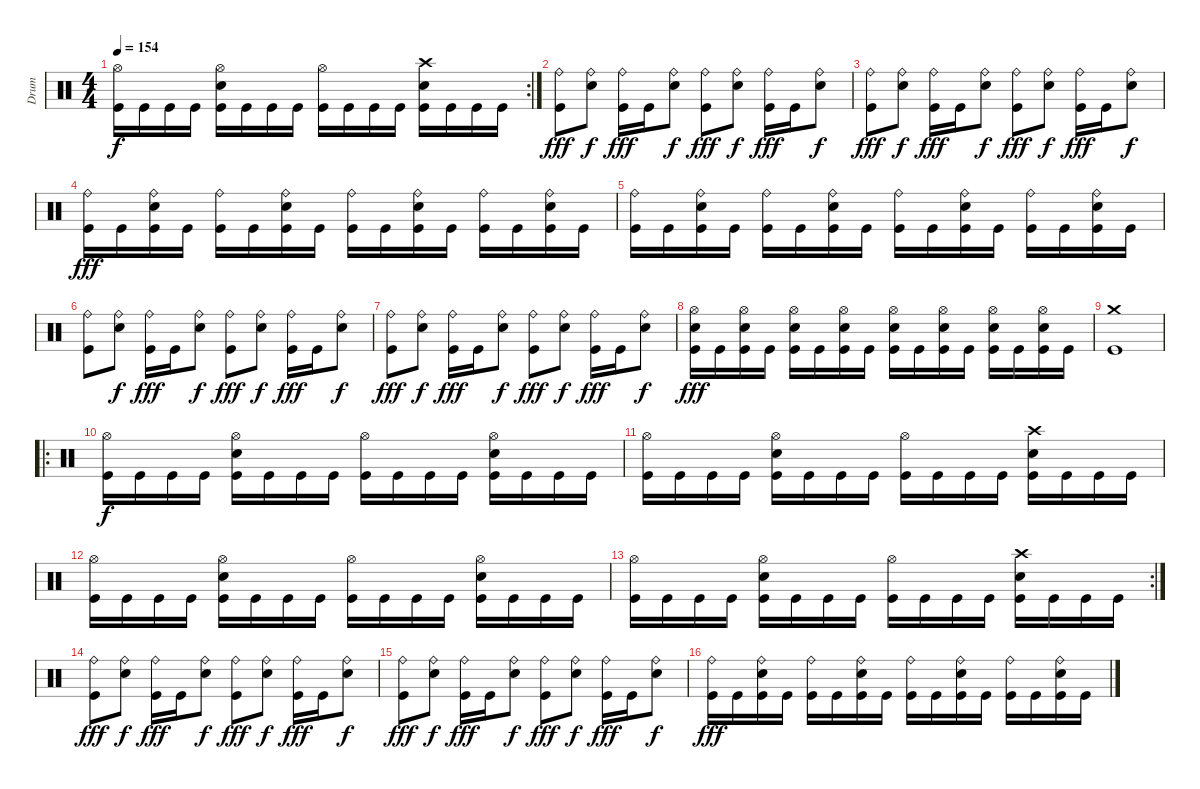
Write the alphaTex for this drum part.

\track ("Drum" "Drum") {instrument percussion}
\staff {score}
\articulation defaults
\rc 2
\ts (4 4)
\tempo 154
\clef neutral
\ks c
("Hi-Hat (open)" "Kick (hit)").16{dy f} "Kick (hit)".16 "Kick (hit)".16 "Kick (hit)".16 ("Hi-Hat (open)" "Snare (hit) 2" "Kick (hit)").16 "Kick (hit)".16 "Kick (hit)".16 "Kick (hit)".16 ("Hi-Hat (open)" "Kick (hit)").16 "Kick (hit)".16 "Kick (hit)".16 "Kick (hit)".16 ("Crash high (hit)" "Snare (hit) 2" "Kick (hit)").16 "Kick (hit)".16 "Kick (hit)".16 "Kick (hit)".16 |
("Ride (bell)" "Kick (hit)").8{dy fff} ("Ride (bell)" "Snare (hit) 2").8{dy f} ("Ride (bell)" "Kick (hit)").16{dy fff} "Kick (hit)".16 ("Ride (bell)" "Snare (hit) 2").8{dy f} ("Ride (bell)" "Kick (hit)").8{dy fff} ("Ride (bell)" "Snare (hit) 2").8{dy f} ("Ride (bell)" "Kick (hit)").16{dy fff} "Kick (hit)".16 ("Ride (bell)" "Snare (hit) 2").8{dy f} |
("Ride (bell)" "Kick (hit)").8{dy fff} ("Ride (bell)" "Snare (hit) 2").8{dy f} ("Ride (bell)" "Kick (hit)").16{dy fff} "Kick (hit)".16 ("Ride (bell)" "Snare (hit) 2").8{dy f} ("Ride (bell)" "Kick (hit)").8{dy fff} ("Ride (bell)" "Snare (hit) 2").8{dy f} ("Ride (bell)" "Kick (hit)").16{dy fff} "Kick (hit)".16 ("Ride (bell)" "Snare (hit) 2").8{dy f} |
("Ride (bell)" "Kick (hit)").16{dy fff} "Kick (hit)".16 ("Ride (bell)" "Snare (hit) 2" "Kick (hit)").16 "Kick (hit)".16 ("Ride (bell)" "Kick (hit)").16 "Kick (hit)".16 ("Ride (bell)" "Snare (hit) 2" "Kick (hit)").16 "Kick (hit)".16 ("Ride (bell)" "Kick (hit)").16 "Kick (hit)".16 ("Ride (bell)" "Snare (hit) 2" "Kick (hit)").16 "Kick (hit)".16 ("Ride (bell)" "Kick (hit)").16 "Kick (hit)".16 ("Ride (bell)" "Snare (hit) 2" "Kick (hit)").16 "Kick (hit)".16 |
("Ride (bell)" "Kick (hit)").16 "Kick (hit)".16 ("Ride (bell)" "Snare (hit) 2" "Kick (hit)").16 "Kick (hit)".16 ("Ride (bell)" "Kick (hit)").16 "Kick (hit)".16 ("Ride (bell)" "Snare (hit) 2" "Kick (hit)").16 "Kick (hit)".16 ("Ride (bell)" "Kick (hit)").16 "Kick (hit)".16 ("Ride (bell)" "Snare (hit) 2" "Kick (hit)").16 "Kick (hit)".16 ("Ride (bell)" "Kick (hit)").16 "Kick (hit)".16 ("Ride (bell)" "Snare (hit) 2" "Kick (hit)").16 "Kick (hit)".16 |
("Ride (bell)" "Kick (hit)").8 ("Ride (bell)" "Snare (hit) 2").8{dy f} ("Ride (bell)" "Kick (hit)").16{dy fff} "Kick (hit)".16 ("Ride (bell)" "Snare (hit) 2").8{dy f} ("Ride (bell)" "Kick (hit)").8{dy fff} ("Ride (bell)" "Snare (hit) 2").8{dy f} ("Ride (bell)" "Kick (hit)").16{dy fff} "Kick (hit)".16 ("Ride (bell)" "Snare (hit) 2").8{dy f} |
("Ride (bell)" "Kick (hit)").8{dy fff} ("Ride (bell)" "Snare (hit) 2").8{dy f} ("Ride (bell)" "Kick (hit)").16{dy fff} "Kick (hit)".16 ("Ride (bell)" "Snare (hit) 2").8{dy f} ("Ride (bell)" "Kick (hit)").8{dy fff} ("Ride (bell)" "Snare (hit) 2").8{dy f} ("Ride (bell)" "Kick (hit)").16{dy fff} "Kick (hit)".16 ("Ride (bell)" "Snare (hit) 2").8{dy f} |
("Hi-Hat (open)" "Snare (hit) 2" "Kick (hit)").16{dy fff} "Kick (hit)".16 ("Hi-Hat (open)" "Snare (hit) 2" "Kick (hit)").16 "Kick (hit)".16 ("Hi-Hat (open)" "Snare (hit) 2" "Kick (hit)").16 "Kick (hit)".16 ("Hi-Hat (open)" "Snare (hit) 2" "Kick (hit)").16 "Kick (hit)".16 ("Hi-Hat (open)" "Snare (hit) 2" "Kick (hit)").16 "Kick (hit)".16 ("Hi-Hat (open)" "Snare (hit) 2" "Kick (hit)").16 "Kick (hit)".16 ("Hi-Hat (open)" "Snare (hit) 2" "Kick (hit)").16 "Kick (hit)".16 ("Hi-Hat (open)" "Snare (hit) 2" "Kick (hit)").16 "Kick (hit)".16 |
("Crash medium (hit)" "Kick (hit)").1 |
\ro
("Hi-Hat (open)" "Kick (hit)").16{dy f} "Kick (hit)".16 "Kick (hit)".16 "Kick (hit)".16 ("Hi-Hat (open)" "Snare (hit) 2" "Kick (hit)").16 "Kick (hit)".16 "Kick (hit)".16 "Kick (hit)".16 ("Hi-Hat (open)" "Kick (hit)").16 "Kick (hit)".16 "Kick (hit)".16 "Kick (hit)".16 ("Hi-Hat (open)" "Snare (hit) 2" "Kick (hit)").16 "Kick (hit)".16 "Kick (hit)".16 "Kick (hit)".16 |
("Hi-Hat (open)" "Kick (hit)").16 "Kick (hit)".16 "Kick (hit)".16 "Kick (hit)".16 ("Hi-Hat (open)" "Snare (hit) 2" "Kick (hit)").16 "Kick (hit)".16 "Kick (hit)".16 "Kick (hit)".16 ("Hi-Hat (open)" "Kick (hit)").16 "Kick (hit)".16 "Kick (hit)".16 "Kick (hit)".16 ("Crash high (hit)" "Snare (hit) 2" "Kick (hit)").16 "Kick (hit)".16 "Kick (hit)".16 "Kick (hit)".16 |
("Hi-Hat (open)" "Kick (hit)").16 "Kick (hit)".16 "Kick (hit)".16 "Kick (hit)".16 ("Hi-Hat (open)" "Snare (hit) 2" "Kick (hit)").16 "Kick (hit)".16 "Kick (hit)".16 "Kick (hit)".16 ("Hi-Hat (open)" "Kick (hit)").16 "Kick (hit)".16 "Kick (hit)".16 "Kick (hit)".16 ("Hi-Hat (open)" "Snare (hit) 2" "Kick (hit)").16 "Kick (hit)".16 "Kick (hit)".16 "Kick (hit)".16 |
\rc 2
("Hi-Hat (open)" "Kick (hit)").16 "Kick (hit)".16 "Kick (hit)".16 "Kick (hit)".16 ("Hi-Hat (open)" "Snare (hit) 2" "Kick (hit)").16 "Kick (hit)".16 "Kick (hit)".16 "Kick (hit)".16 ("Hi-Hat (open)" "Kick (hit)").16 "Kick (hit)".16 "Kick (hit)".16 "Kick (hit)".16 ("Crash high (hit)" "Snare (hit) 2" "Kick (hit)").16 "Kick (hit)".16 "Kick (hit)".16 "Kick (hit)".16 |
("Ride (bell)" "Kick (hit)").8{dy fff} ("Ride (bell)" "Snare (hit) 2").8{dy f} ("Ride (bell)" "Kick (hit)").16{dy fff} "Kick (hit)".16 ("Ride (bell)" "Snare (hit) 2").8{dy f} ("Ride (bell)" "Kick (hit)").8{dy fff} ("Ride (bell)" "Snare (hit) 2").8{dy f} ("Ride (bell)" "Kick (hit)").16{dy fff} "Kick (hit)".16 ("Ride (bell)" "Snare (hit) 2").8{dy f} |
("Ride (bell)" "Kick (hit)").8{dy fff} ("Ride (bell)" "Snare (hit) 2").8{dy f} ("Ride (bell)" "Kick (hit)").16{dy fff} "Kick (hit)".16 ("Ride (bell)" "Snare (hit) 2").8{dy f} ("Ride (bell)" "Kick (hit)").8{dy fff} ("Ride (bell)" "Snare (hit) 2").8{dy f} ("Ride (bell)" "Kick (hit)").16{dy fff} "Kick (hit)".16 ("Ride (bell)" "Snare (hit) 2").8{dy f} |
("Ride (bell)" "Kick (hit)").16{dy fff} "Kick (hit)".16 ("Ride (bell)" "Snare (hit) 2" "Kick (hit)").16 "Kick (hit)".16 ("Ride (bell)" "Kick (hit)").16 "Kick (hit)".16 ("Ride (bell)" "Snare (hit) 2" "Kick (hit)").16 "Kick (hit)".16 ("Ride (bell)" "Kick (hit)").16 "Kick (hit)".16 ("Ride (bell)" "Snare (hit) 2" "Kick (hit)").16 "Kick (hit)".16 ("Ride (bell)" "Kick (hit)").16 "Kick (hit)".16 ("Ride (bell)" "Snare (hit) 2" "Kick (hit)").16 "Kick (hit)".16
